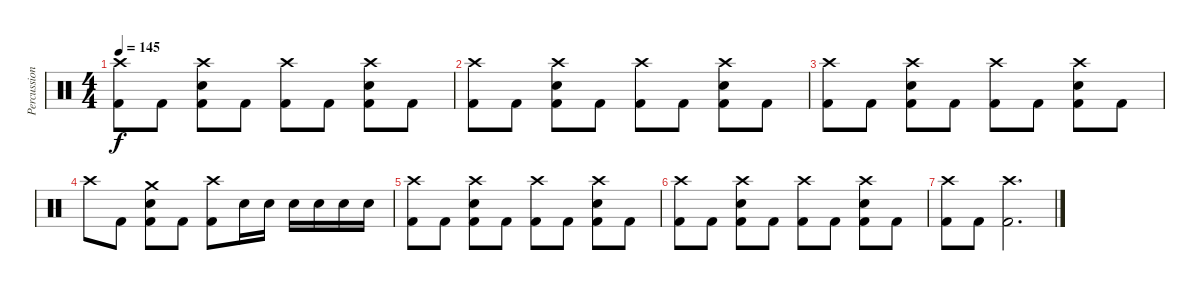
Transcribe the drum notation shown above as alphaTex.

\track ("Percussion" "Percussion") {instrument percussion}
\staff {score}
\articulation defaults
\ts (4 4)
\tempo 145
\clef neutral
\ks c
("Crash high (hit)" "Kick (hit) 2").8{dy f volume 13} "Kick (hit) 2".8 ("Crash high (hit)" "Electric Snare (hit)" "Kick (hit) 2").8 "Kick (hit) 2".8 ("Crash high (hit)" "Kick (hit) 2").8 "Kick (hit) 2".8 ("Crash high (hit)" "Electric Snare (hit)" "Kick (hit) 2").8 "Kick (hit) 2".8 |
("Crash high (hit)" "Kick (hit) 2").8 "Kick (hit) 2".8 ("Crash high (hit)" "Electric Snare (hit)" "Kick (hit) 2").8 "Kick (hit) 2".8 ("Crash high (hit)" "Kick (hit) 2").8 "Kick (hit) 2".8 ("Crash high (hit)" "Electric Snare (hit)" "Kick (hit) 2").8 "Kick (hit) 2".8 |
("Crash high (hit)" "Kick (hit) 2").8 "Kick (hit) 2".8 ("Crash high (hit)" "Electric Snare (hit)" "Kick (hit) 2").8 "Kick (hit) 2".8 ("Crash high (hit)" "Kick (hit) 2").8 "Kick (hit) 2".8 ("Crash high (hit)" "Electric Snare (hit)" "Kick (hit) 2").8 "Kick (hit) 2".8 |
"Crash high (hit)".8 "Kick (hit) 2".8 ("Crash medium (hit)" "Electric Snare (hit)" "Kick (hit) 2").8 "Kick (hit) 2".8 ("Crash high (hit)" "Kick (hit) 2").8 "Snare (hit) 2".16 "Snare (hit) 2".16 "Snare (hit) 2".16 "Snare (hit) 2".16 "Snare (hit) 2".16 "Snare (hit) 2".16 |
("Crash high (hit)" "Kick (hit) 2").8{volume 13} "Kick (hit) 2".8 ("Crash high (hit)" "Electric Snare (hit)" "Kick (hit) 2").8 "Kick (hit) 2".8 ("Crash high (hit)" "Kick (hit) 2").8 "Kick (hit) 2".8 ("Crash high (hit)" "Electric Snare (hit)" "Kick (hit) 2").8 "Kick (hit) 2".8 |
("Crash high (hit)" "Kick (hit) 2").8 "Kick (hit) 2".8 ("Crash high (hit)" "Electric Snare (hit)" "Kick (hit) 2").8 "Kick (hit) 2".8 ("Crash high (hit)" "Kick (hit) 2").8 "Kick (hit) 2".8 ("Crash high (hit)" "Electric Snare (hit)" "Kick (hit) 2").8 "Kick (hit) 2".8 |
("Crash high (hit)" "Kick (hit) 2").8 "Kick (hit) 2".8 ("Crash high (hit)" "Kick (hit) 2").2{d}
